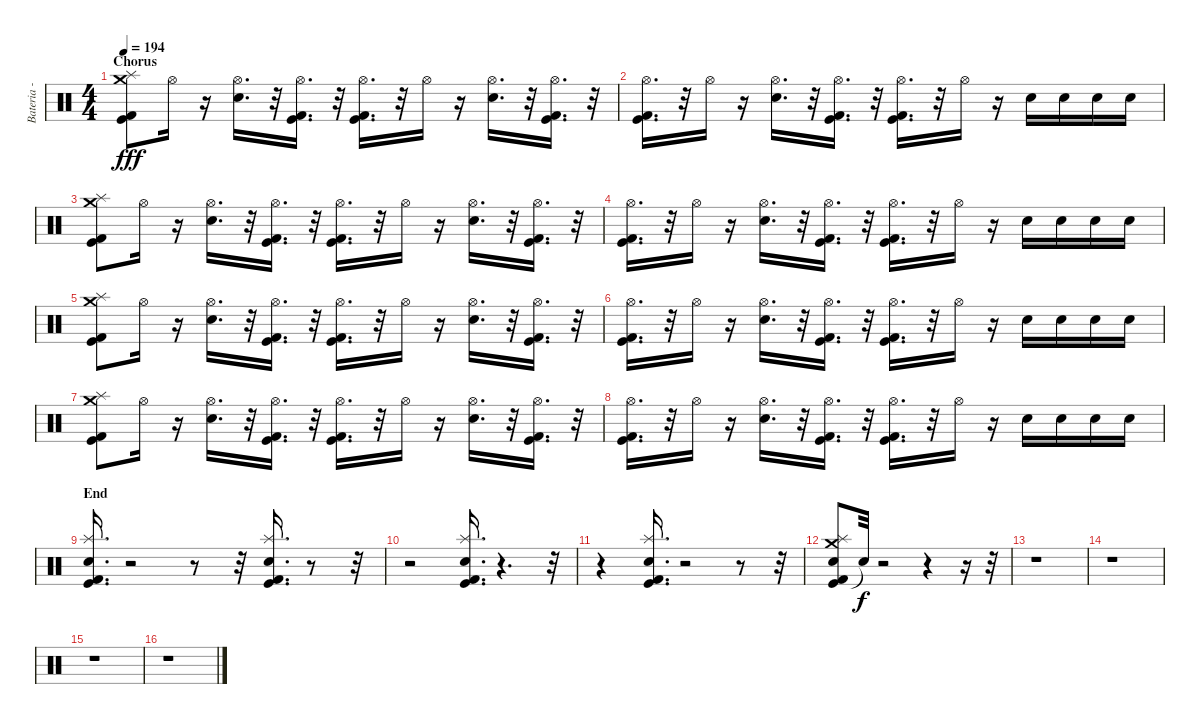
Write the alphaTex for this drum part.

\track ("Bateria - Larzon" "Bateria - ") {instrument percussion}
\staff {score}
\articulation defaults
\ts (4 4)
\section ("" "Chorus")
\tempo 194
\clef neutral
\ks c
("Kick (hit) 2" "Kick (hit)" "Splash (hit)" "Crash medium (hit)").8{dy fff} "Hi-Hat (open)".16 r.16 ("Electric Snare (hit)" "Hi-Hat (open)").16{d} r.32 ("Kick (hit) 2" "Kick (hit)" "Hi-Hat (open)").16{d} r.32 ("Kick (hit)" "Kick (hit) 2" "Hi-Hat (open)").16{d} r.32 "Hi-Hat (open)".16 r.16 ("Electric Snare (hit)" "Hi-Hat (open)").16{d} r.32 ("Kick (hit)" "Kick (hit) 2" "Hi-Hat (open)").16{d} r.32 |
("Kick (hit)" "Kick (hit) 2" "Hi-Hat (open)").16{d} r.32 "Hi-Hat (open)".16 r.16 ("Electric Snare (hit)" "Hi-Hat (open)").16{d} r.32 ("Hi-Hat (open)" "Kick (hit)" "Kick (hit) 2").16{d} r.32 ("Kick (hit)" "Kick (hit) 2" "Hi-Hat (open)").16{d} r.32 "Hi-Hat (open)".16 r.16 "Electric Snare (hit)".16 "Electric Snare (hit)".16 "Electric Snare (hit)".16 "Electric Snare (hit)".16 |
("Kick (hit) 2" "Kick (hit)" "Splash (hit)" "Crash medium (hit)").8 "Hi-Hat (open)".16 r.16 ("Electric Snare (hit)" "Hi-Hat (open)").16{d} r.32 ("Kick (hit) 2" "Kick (hit)" "Hi-Hat (open)").16{d} r.32 ("Kick (hit)" "Kick (hit) 2" "Hi-Hat (open)").16{d} r.32 "Hi-Hat (open)".16 r.16 ("Electric Snare (hit)" "Hi-Hat (open)").16{d} r.32 ("Kick (hit)" "Kick (hit) 2" "Hi-Hat (open)").16{d} r.32 |
("Kick (hit)" "Kick (hit) 2" "Hi-Hat (open)").16{d} r.32 "Hi-Hat (open)".16 r.16 ("Electric Snare (hit)" "Hi-Hat (open)").16{d} r.32 ("Hi-Hat (open)" "Kick (hit)" "Kick (hit) 2").16{d} r.32 ("Kick (hit)" "Kick (hit) 2" "Hi-Hat (open)").16{d} r.32 "Hi-Hat (open)".16 r.16 "Electric Snare (hit)".16 "Electric Snare (hit)".16 "Electric Snare (hit)".16 "Electric Snare (hit)".16 |
("Kick (hit) 2" "Kick (hit)" "Splash (hit)" "Crash medium (hit)").8 "Hi-Hat (open)".16 r.16 ("Electric Snare (hit)" "Hi-Hat (open)").16{d} r.32 ("Kick (hit) 2" "Kick (hit)" "Hi-Hat (open)").16{d} r.32 ("Kick (hit)" "Kick (hit) 2" "Hi-Hat (open)").16{d} r.32 "Hi-Hat (open)".16 r.16 ("Electric Snare (hit)" "Hi-Hat (open)").16{d} r.32 ("Kick (hit)" "Kick (hit) 2" "Hi-Hat (open)").16{d} r.32 |
("Kick (hit)" "Kick (hit) 2" "Hi-Hat (open)").16{d} r.32 "Hi-Hat (open)".16 r.16 ("Electric Snare (hit)" "Hi-Hat (open)").16{d} r.32 ("Hi-Hat (open)" "Kick (hit)" "Kick (hit) 2").16{d} r.32 ("Kick (hit)" "Kick (hit) 2" "Hi-Hat (open)").16{d} r.32 "Hi-Hat (open)".16 r.16 "Electric Snare (hit)".16 "Electric Snare (hit)".16 "Electric Snare (hit)".16 "Electric Snare (hit)".16 |
("Kick (hit) 2" "Kick (hit)" "Splash (hit)" "Crash medium (hit)").8 "Hi-Hat (open)".16 r.16 ("Electric Snare (hit)" "Hi-Hat (open)").16{d} r.32 ("Kick (hit) 2" "Kick (hit)" "Hi-Hat (open)").16{d} r.32 ("Kick (hit)" "Kick (hit) 2" "Hi-Hat (open)").16{d} r.32 "Hi-Hat (open)".16 r.16 ("Electric Snare (hit)" "Hi-Hat (open)").16{d} r.32 ("Kick (hit)" "Kick (hit) 2" "Hi-Hat (open)").16{d} r.32 |
("Kick (hit)" "Kick (hit) 2" "Hi-Hat (open)").16{d} r.32 "Hi-Hat (open)".16 r.16 ("Electric Snare (hit)" "Hi-Hat (open)").16{d} r.32 ("Hi-Hat (open)" "Kick (hit)" "Kick (hit) 2").16{d} r.32 ("Kick (hit)" "Kick (hit) 2" "Hi-Hat (open)").16{d} r.32 "Hi-Hat (open)".16 r.16 "Electric Snare (hit)".16 "Electric Snare (hit)".16 "Electric Snare (hit)".16 "Electric Snare (hit)".16 |
\section ("" "End")
("Kick (hit)" "Kick (hit) 2" "Electric Snare (hit)" "Splash (hit)").16{d} r.2 r.8 r.32 ("Kick (hit)" "Kick (hit) 2" "Electric Snare (hit)" "Splash (hit)").16{d} r.8 r.32 |
r.2 ("Kick (hit)" "Kick (hit) 2" "Electric Snare (hit)" "Splash (hit)").16{d} r.4{d} r.32 |
r.4 ("Kick (hit)" "Kick (hit) 2" "Electric Snare (hit)" "Splash (hit)").16{d} r.2 r.8 r.32 |
("Kick (hit)" "Kick (hit) 2" "Electric Snare (hit)" "Splash (hit)" "Crash medium (hit)").8 "Snare (hit)"{t}.32{dy f} r.2 r.4 r.16 r.32 |
r.1 |
r.1 |
r.1 |
r.1
